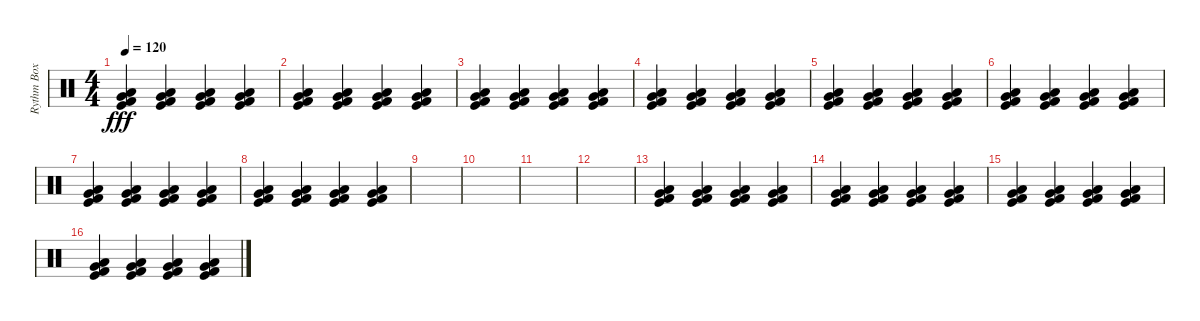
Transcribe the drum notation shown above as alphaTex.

\track ("Rythm Box" "Rythm Box") {instrument percussion}
\staff {score}
\articulation defaults
\ts (4 4)
\tempo 120
\clef neutral
\ks c
("Low Floor Tom (hit)" "Very Low Tom (hit)" "Kick (hit) 2" "Kick (hit)").4{dy fff} ("Low Floor Tom (hit)" "Very Low Tom (hit)" "Kick (hit) 2" "Kick (hit)").4 ("Low Floor Tom (hit)" "Very Low Tom (hit)" "Kick (hit) 2" "Kick (hit)").4 ("Low Floor Tom (hit)" "Very Low Tom (hit)" "Kick (hit) 2" "Kick (hit)").4 |
("Low Floor Tom (hit)" "Very Low Tom (hit)" "Kick (hit) 2" "Kick (hit)").4 ("Low Floor Tom (hit)" "Very Low Tom (hit)" "Kick (hit) 2" "Kick (hit)").4 ("Low Floor Tom (hit)" "Very Low Tom (hit)" "Kick (hit) 2" "Kick (hit)").4 ("Low Floor Tom (hit)" "Very Low Tom (hit)" "Kick (hit) 2" "Kick (hit)").4 |
("Low Floor Tom (hit)" "Very Low Tom (hit)" "Kick (hit) 2" "Kick (hit)").4 ("Low Floor Tom (hit)" "Very Low Tom (hit)" "Kick (hit) 2" "Kick (hit)").4 ("Low Floor Tom (hit)" "Very Low Tom (hit)" "Kick (hit) 2" "Kick (hit)").4 ("Low Floor Tom (hit)" "Very Low Tom (hit)" "Kick (hit) 2" "Kick (hit)").4 |
("Low Floor Tom (hit)" "Very Low Tom (hit)" "Kick (hit) 2" "Kick (hit)").4 ("Low Floor Tom (hit)" "Very Low Tom (hit)" "Kick (hit) 2" "Kick (hit)").4 ("Low Floor Tom (hit)" "Very Low Tom (hit)" "Kick (hit) 2" "Kick (hit)").4 ("Low Floor Tom (hit)" "Very Low Tom (hit)" "Kick (hit) 2" "Kick (hit)").4 |
("Low Floor Tom (hit)" "Very Low Tom (hit)" "Kick (hit) 2" "Kick (hit)").4 ("Low Floor Tom (hit)" "Very Low Tom (hit)" "Kick (hit) 2" "Kick (hit)").4 ("Low Floor Tom (hit)" "Very Low Tom (hit)" "Kick (hit) 2" "Kick (hit)").4 ("Low Floor Tom (hit)" "Very Low Tom (hit)" "Kick (hit) 2" "Kick (hit)").4 |
("Low Floor Tom (hit)" "Very Low Tom (hit)" "Kick (hit) 2" "Kick (hit)").4 ("Low Floor Tom (hit)" "Very Low Tom (hit)" "Kick (hit) 2" "Kick (hit)").4 ("Low Floor Tom (hit)" "Very Low Tom (hit)" "Kick (hit) 2" "Kick (hit)").4 ("Low Floor Tom (hit)" "Very Low Tom (hit)" "Kick (hit) 2" "Kick (hit)").4 |
("Low Floor Tom (hit)" "Very Low Tom (hit)" "Kick (hit) 2" "Kick (hit)").4 ("Low Floor Tom (hit)" "Very Low Tom (hit)" "Kick (hit) 2" "Kick (hit)").4 ("Low Floor Tom (hit)" "Very Low Tom (hit)" "Kick (hit) 2" "Kick (hit)").4 ("Low Floor Tom (hit)" "Very Low Tom (hit)" "Kick (hit) 2" "Kick (hit)").4 |
("Low Floor Tom (hit)" "Very Low Tom (hit)" "Kick (hit) 2" "Kick (hit)").4 ("Low Floor Tom (hit)" "Very Low Tom (hit)" "Kick (hit) 2" "Kick (hit)").4 ("Low Floor Tom (hit)" "Very Low Tom (hit)" "Kick (hit) 2" "Kick (hit)").4 ("Low Floor Tom (hit)" "Very Low Tom (hit)" "Kick (hit) 2" "Kick (hit)").4 |
|
|
|
|
("Low Floor Tom (hit)" "Very Low Tom (hit)" "Kick (hit) 2" "Kick (hit)").4 ("Low Floor Tom (hit)" "Very Low Tom (hit)" "Kick (hit) 2" "Kick (hit)").4 ("Low Floor Tom (hit)" "Very Low Tom (hit)" "Kick (hit) 2" "Kick (hit)").4 ("Low Floor Tom (hit)" "Very Low Tom (hit)" "Kick (hit) 2" "Kick (hit)").4 |
("Low Floor Tom (hit)" "Very Low Tom (hit)" "Kick (hit) 2" "Kick (hit)").4 ("Low Floor Tom (hit)" "Very Low Tom (hit)" "Kick (hit) 2" "Kick (hit)").4 ("Low Floor Tom (hit)" "Very Low Tom (hit)" "Kick (hit) 2" "Kick (hit)").4 ("Low Floor Tom (hit)" "Very Low Tom (hit)" "Kick (hit) 2" "Kick (hit)").4 |
("Low Floor Tom (hit)" "Very Low Tom (hit)" "Kick (hit) 2" "Kick (hit)").4 ("Low Floor Tom (hit)" "Very Low Tom (hit)" "Kick (hit) 2" "Kick (hit)").4 ("Low Floor Tom (hit)" "Very Low Tom (hit)" "Kick (hit) 2" "Kick (hit)").4 ("Low Floor Tom (hit)" "Very Low Tom (hit)" "Kick (hit) 2" "Kick (hit)").4 |
("Low Floor Tom (hit)" "Very Low Tom (hit)" "Kick (hit) 2" "Kick (hit)").4 ("Low Floor Tom (hit)" "Very Low Tom (hit)" "Kick (hit) 2" "Kick (hit)").4 ("Low Floor Tom (hit)" "Very Low Tom (hit)" "Kick (hit) 2" "Kick (hit)").4 ("Low Floor Tom (hit)" "Very Low Tom (hit)" "Kick (hit) 2" "Kick (hit)").4
